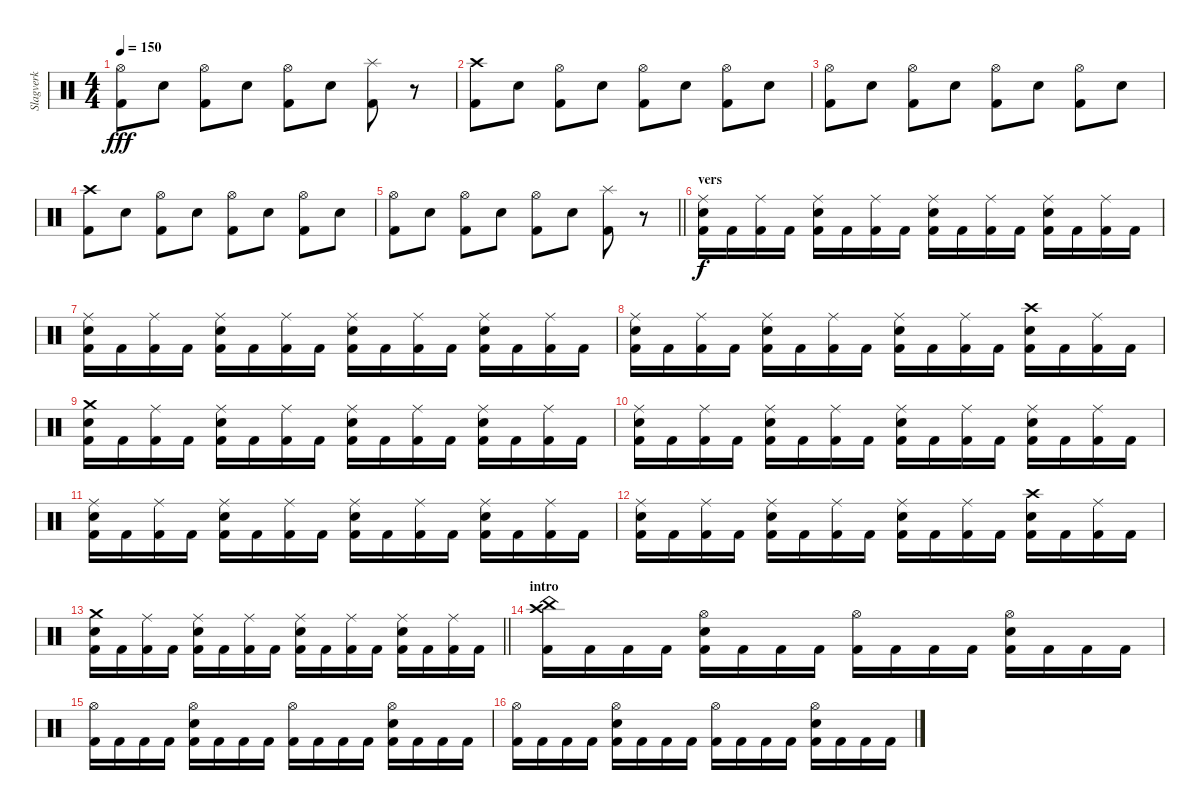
\track ("Slagverk" "Slagverk") {instrument percussion}
\staff {score}
\articulation defaults
\ts (4 4)
\tempo 150
\clef neutral
\ks c
("Hi-Hat (open)" "Kick (hit) 2").8{dy fff} "Electric Snare (hit)".8 ("Hi-Hat (open)" "Kick (hit) 2").8 "Electric Snare (hit)".8 ("Hi-Hat (open)" "Kick (hit) 2").8 "Electric Snare (hit)".8 ("Splash (hit)" "Kick (hit) 2").8 r.8 |
("Crash high (hit)" "Kick (hit) 2").8 "Electric Snare (hit)".8 ("Hi-Hat (open)" "Kick (hit) 2").8 "Electric Snare (hit)".8 ("Hi-Hat (open)" "Kick (hit) 2").8 "Electric Snare (hit)".8 ("Hi-Hat (open)" "Kick (hit) 2").8 "Electric Snare (hit)".8 |
("Hi-Hat (open)" "Kick (hit) 2").8 "Electric Snare (hit)".8 ("Hi-Hat (open)" "Kick (hit) 2").8 "Electric Snare (hit)".8 ("Hi-Hat (open)" "Kick (hit) 2").8 "Electric Snare (hit)".8 ("Hi-Hat (open)" "Kick (hit) 2").8 "Electric Snare (hit)".8 |
("Crash high (hit)" "Kick (hit) 2").8 "Electric Snare (hit)".8 ("Hi-Hat (open)" "Kick (hit) 2").8 "Electric Snare (hit)".8 ("Hi-Hat (open)" "Kick (hit) 2").8 "Electric Snare (hit)".8 ("Hi-Hat (open)" "Kick (hit) 2").8 "Electric Snare (hit)".8 |
\barLineRight lightlight
("Hi-Hat (open)" "Kick (hit) 2").8 "Electric Snare (hit)".8 ("Hi-Hat (open)" "Kick (hit) 2").8 "Electric Snare (hit)".8 ("Hi-Hat (open)" "Kick (hit) 2").8 "Electric Snare (hit)".8 ("Splash (hit)" "Kick (hit) 2").8 r.8 |
\section ("" "vers")
("Ride (middle)" "Electric Snare (hit)" "Kick (hit) 2").16{dy f} "Kick (hit) 2".16 ("Ride (middle)" "Kick (hit) 2").16 "Kick (hit) 2".16 ("Ride (middle)" "Electric Snare (hit)" "Kick (hit) 2").16 "Kick (hit) 2".16 ("Ride (middle)" "Kick (hit) 2").16 "Kick (hit) 2".16 ("Ride (middle)" "Electric Snare (hit)" "Kick (hit) 2").16 "Kick (hit) 2".16 ("Ride (middle)" "Kick (hit) 2").16 "Kick (hit) 2".16 ("Ride (middle)" "Electric Snare (hit)" "Kick (hit) 2").16 "Kick (hit) 2".16 ("Ride (middle)" "Kick (hit) 2").16 "Kick (hit) 2".16 |
("Ride (middle)" "Electric Snare (hit)" "Kick (hit) 2").16 "Kick (hit) 2".16 ("Ride (middle)" "Kick (hit) 2").16 "Kick (hit) 2".16 ("Ride (middle)" "Electric Snare (hit)" "Kick (hit) 2").16 "Kick (hit) 2".16 ("Ride (middle)" "Kick (hit) 2").16 "Kick (hit) 2".16 ("Ride (middle)" "Electric Snare (hit)" "Kick (hit) 2").16 "Kick (hit) 2".16 ("Ride (middle)" "Kick (hit) 2").16 "Kick (hit) 2".16 ("Ride (middle)" "Electric Snare (hit)" "Kick (hit) 2").16 "Kick (hit) 2".16 ("Ride (middle)" "Kick (hit) 2").16 "Kick (hit) 2".16 |
("Ride (middle)" "Electric Snare (hit)" "Kick (hit) 2").16 "Kick (hit) 2".16 ("Ride (middle)" "Kick (hit) 2").16 "Kick (hit) 2".16 ("Ride (middle)" "Electric Snare (hit)" "Kick (hit) 2").16 "Kick (hit) 2".16 ("Ride (middle)" "Kick (hit) 2").16 "Kick (hit) 2".16 ("Ride (middle)" "Electric Snare (hit)" "Kick (hit) 2").16 "Kick (hit) 2".16 ("Ride (middle)" "Kick (hit) 2").16 "Kick (hit) 2".16 ("Crash high (hit)" "Electric Snare (hit)" "Kick (hit) 2").16 "Kick (hit) 2".16 ("Ride (middle)" "Kick (hit) 2").16 "Kick (hit) 2".16 |
("Crash medium (hit)" "Electric Snare (hit)" "Kick (hit) 2").16 "Kick (hit) 2".16 ("Ride (middle)" "Kick (hit) 2").16 "Kick (hit) 2".16 ("Ride (middle)" "Electric Snare (hit)" "Kick (hit) 2").16 "Kick (hit) 2".16 ("Ride (middle)" "Kick (hit) 2").16 "Kick (hit) 2".16 ("Ride (middle)" "Electric Snare (hit)" "Kick (hit) 2").16 "Kick (hit) 2".16 ("Ride (middle)" "Kick (hit) 2").16 "Kick (hit) 2".16 ("Ride (middle)" "Electric Snare (hit)" "Kick (hit) 2").16 "Kick (hit) 2".16 ("Ride (middle)" "Kick (hit) 2").16 "Kick (hit) 2".16 |
("Ride (middle)" "Electric Snare (hit)" "Kick (hit) 2").16 "Kick (hit) 2".16 ("Ride (middle)" "Kick (hit) 2").16 "Kick (hit) 2".16 ("Ride (middle)" "Electric Snare (hit)" "Kick (hit) 2").16 "Kick (hit) 2".16 ("Ride (middle)" "Kick (hit) 2").16 "Kick (hit) 2".16 ("Ride (middle)" "Electric Snare (hit)" "Kick (hit) 2").16 "Kick (hit) 2".16 ("Ride (middle)" "Kick (hit) 2").16 "Kick (hit) 2".16 ("Ride (middle)" "Electric Snare (hit)" "Kick (hit) 2").16 "Kick (hit) 2".16 ("Ride (middle)" "Kick (hit) 2").16 "Kick (hit) 2".16 |
("Ride (middle)" "Electric Snare (hit)" "Kick (hit) 2").16 "Kick (hit) 2".16 ("Ride (middle)" "Kick (hit) 2").16 "Kick (hit) 2".16 ("Ride (middle)" "Electric Snare (hit)" "Kick (hit) 2").16 "Kick (hit) 2".16 ("Ride (middle)" "Kick (hit) 2").16 "Kick (hit) 2".16 ("Ride (middle)" "Electric Snare (hit)" "Kick (hit) 2").16 "Kick (hit) 2".16 ("Ride (middle)" "Kick (hit) 2").16 "Kick (hit) 2".16 ("Ride (middle)" "Electric Snare (hit)" "Kick (hit) 2").16 "Kick (hit) 2".16 ("Ride (middle)" "Kick (hit) 2").16 "Kick (hit) 2".16 |
("Ride (middle)" "Electric Snare (hit)" "Kick (hit) 2").16 "Kick (hit) 2".16 ("Ride (middle)" "Kick (hit) 2").16 "Kick (hit) 2".16 ("Ride (middle)" "Electric Snare (hit)" "Kick (hit) 2").16 "Kick (hit) 2".16 ("Ride (middle)" "Kick (hit) 2").16 "Kick (hit) 2".16 ("Ride (middle)" "Electric Snare (hit)" "Kick (hit) 2").16 "Kick (hit) 2".16 ("Ride (middle)" "Kick (hit) 2").16 "Kick (hit) 2".16 ("Crash high (hit)" "Electric Snare (hit)" "Kick (hit) 2").16 "Kick (hit) 2".16 ("Ride (middle)" "Kick (hit) 2").16 "Kick (hit) 2".16 |
\barLineRight lightlight
("Crash medium (hit)" "Electric Snare (hit)" "Kick (hit) 2").16 "Kick (hit) 2".16 ("Ride (middle)" "Kick (hit) 2").16 "Kick (hit) 2".16 ("Ride (middle)" "Electric Snare (hit)" "Kick (hit) 2").16 "Kick (hit) 2".16 ("Ride (middle)" "Kick (hit) 2").16 "Kick (hit) 2".16 ("Ride (middle)" "Electric Snare (hit)" "Kick (hit) 2").16 "Kick (hit) 2".16 ("Ride (middle)" "Kick (hit) 2").16 "Kick (hit) 2".16 ("Ride (middle)" "Electric Snare (hit)" "Kick (hit) 2").16 "Kick (hit) 2".16 ("Ride (middle)" "Kick (hit) 2").16 "Kick (hit) 2".16 |
\section ("" "intro")
("China (hit)" "Crash high (hit)" "Kick (hit) 2").16 "Kick (hit) 2".16 "Kick (hit) 2".16 "Kick (hit) 2".16 ("Hi-Hat (open)" "Electric Snare (hit)" "Kick (hit) 2").16 "Kick (hit) 2".16 "Kick (hit) 2".16 "Kick (hit) 2".16 ("Hi-Hat (open)" "Kick (hit) 2").16 "Kick (hit) 2".16 "Kick (hit) 2".16 "Kick (hit) 2".16 ("Hi-Hat (open)" "Electric Snare (hit)" "Kick (hit) 2").16 "Kick (hit) 2".16 "Kick (hit) 2".16 "Kick (hit) 2".16 |
("Hi-Hat (open)" "Kick (hit) 2").16 "Kick (hit) 2".16 "Kick (hit) 2".16 "Kick (hit) 2".16 ("Hi-Hat (open)" "Electric Snare (hit)" "Kick (hit) 2").16 "Kick (hit) 2".16 "Kick (hit) 2".16 "Kick (hit) 2".16 ("Hi-Hat (open)" "Kick (hit) 2").16 "Kick (hit) 2".16 "Kick (hit) 2".16 "Kick (hit) 2".16 ("Hi-Hat (open)" "Electric Snare (hit)" "Kick (hit) 2").16 "Kick (hit) 2".16 "Kick (hit) 2".16 "Kick (hit) 2".16 |
("Hi-Hat (open)" "Kick (hit) 2").16 "Kick (hit) 2".16 "Kick (hit) 2".16 "Kick (hit) 2".16 ("Hi-Hat (open)" "Electric Snare (hit)" "Kick (hit) 2").16 "Kick (hit) 2".16 "Kick (hit) 2".16 "Kick (hit) 2".16 ("Hi-Hat (open)" "Kick (hit) 2").16 "Kick (hit) 2".16 "Kick (hit) 2".16 "Kick (hit) 2".16 ("Hi-Hat (open)" "Electric Snare (hit)" "Kick (hit) 2").16 "Kick (hit) 2".16 "Kick (hit) 2".16 "Kick (hit) 2".16
